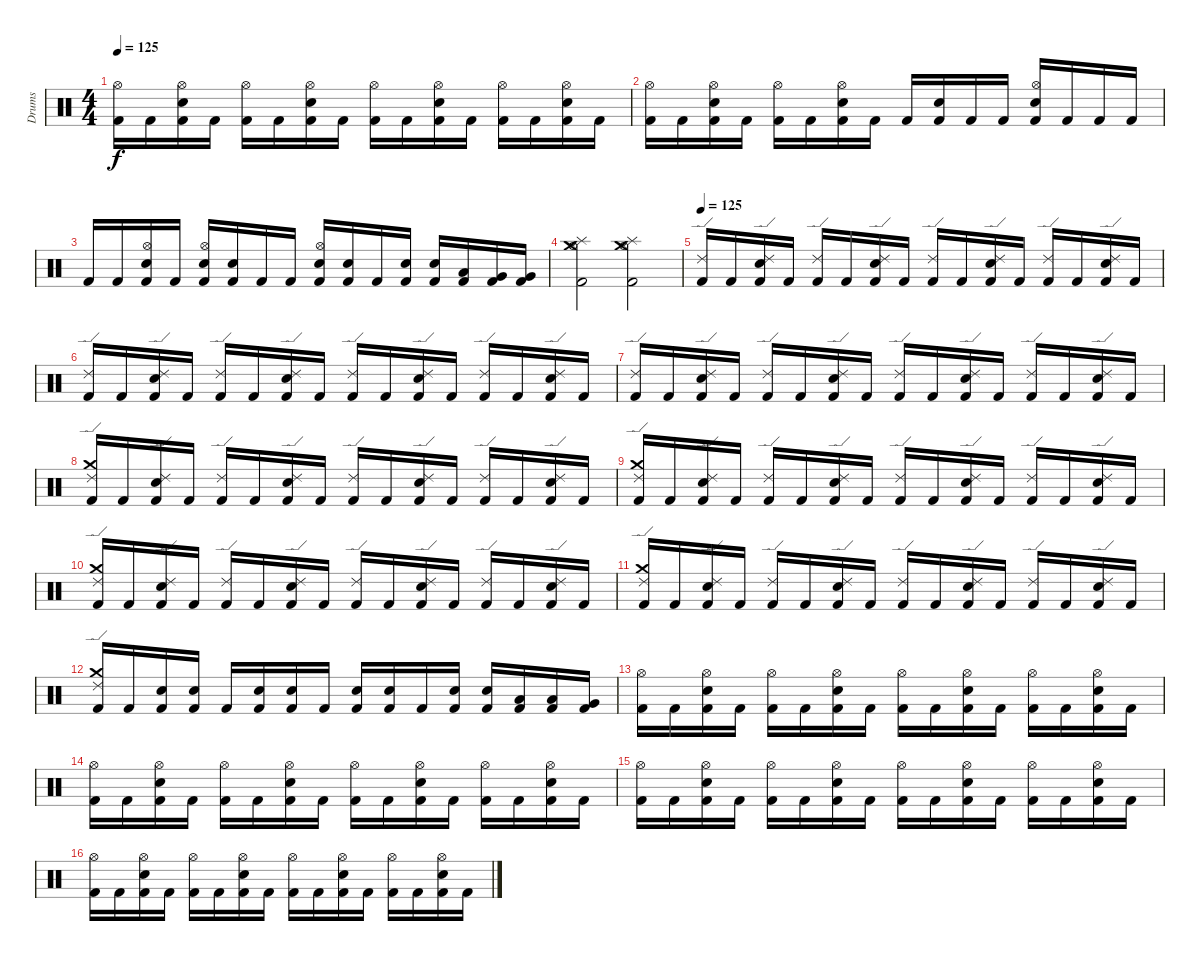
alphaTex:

\track ("Drums" "Drums") {instrument percussion}
\staff {score}
\articulation defaults
\ts (4 4)
\tempo 125
\clef neutral
\ks c
("Kick (hit) 2" "Hi-Hat (open)").16{dy f} "Kick (hit) 2".16 ("Kick (hit) 2" "Electric Snare (hit)" "Hi-Hat (open)").16 "Kick (hit) 2".16 ("Kick (hit) 2" "Hi-Hat (open)").16 "Kick (hit) 2".16 ("Kick (hit) 2" "Electric Snare (hit)" "Hi-Hat (open)").16 "Kick (hit) 2".16 ("Kick (hit) 2" "Hi-Hat (open)").16 "Kick (hit) 2".16 ("Kick (hit) 2" "Electric Snare (hit)" "Hi-Hat (open)").16 "Kick (hit) 2".16 ("Kick (hit) 2" "Hi-Hat (open)").16 "Kick (hit) 2".16 ("Kick (hit) 2" "Electric Snare (hit)" "Hi-Hat (open)").16 "Kick (hit) 2".16 |
("Kick (hit) 2" "Hi-Hat (open)").16 "Kick (hit) 2".16 ("Kick (hit) 2" "Electric Snare (hit)" "Hi-Hat (open)").16 "Kick (hit) 2".16 ("Kick (hit) 2" "Hi-Hat (open)").16 "Kick (hit) 2".16 ("Kick (hit) 2" "Electric Snare (hit)" "Hi-Hat (open)").16 "Kick (hit) 2".16 "Kick (hit) 2".16 ("Electric Snare (hit)" "Kick (hit) 2").16 "Kick (hit) 2".16 "Kick (hit) 2".16 ("Hi-Hat (open)" "Electric Snare (hit)" "Kick (hit) 2").16 "Kick (hit) 2".16 "Kick (hit) 2".16 "Kick (hit) 2".16 |
"Kick (hit) 2".16 "Kick (hit) 2".16 ("Hi-Hat (open)" "Kick (hit) 2" "Electric Snare (hit)").16 "Kick (hit) 2".16 ("Hi-Hat (open)" "Kick (hit) 2" "Electric Snare (hit)").16 ("Kick (hit) 2" "Electric Snare (hit)").16 "Kick (hit) 2".16 "Kick (hit) 2".16 ("Hi-Hat (open)" "Kick (hit) 2" "Electric Snare (hit)").16 ("Kick (hit) 2" "Electric Snare (hit)").16 "Kick (hit) 2".16 ("Kick (hit) 2" "Electric Snare (hit)").16 ("Kick (hit) 2" "Electric Snare (hit)").16 ("Kick (hit) 2" "Low Tom (hit)").16 ("Kick (hit) 2" "Very Low Tom (hit)").16 ("Kick (hit) 2" "Very Low Tom (hit)").16 |
("Hi-Hat (open)" "Crash medium (hit)" "Splash (hit)" "Kick (hit) 2").2 ("Hi-Hat (open)" "Crash medium (hit)" "Splash (hit)" "Kick (hit) 2").2 |
\tempo 125
("Kick (hit) 2" "Ride (edge) 2").16 "Kick (hit) 2".16 ("Kick (hit) 2" "Electric Snare (hit)" "Ride (edge) 2").16 "Kick (hit) 2".16 ("Kick (hit) 2" "Ride (edge) 2").16 "Kick (hit) 2".16 ("Kick (hit) 2" "Electric Snare (hit)" "Ride (edge) 2").16 "Kick (hit) 2".16 ("Kick (hit) 2" "Ride (edge) 2").16 "Kick (hit) 2".16 ("Kick (hit) 2" "Electric Snare (hit)" "Ride (edge) 2").16 "Kick (hit) 2".16 ("Kick (hit) 2" "Ride (edge) 2").16 "Kick (hit) 2".16 ("Kick (hit) 2" "Electric Snare (hit)" "Ride (edge) 2").16 "Kick (hit) 2".16 |
("Kick (hit) 2" "Ride (edge) 2").16 "Kick (hit) 2".16 ("Kick (hit) 2" "Electric Snare (hit)" "Ride (edge) 2").16 "Kick (hit) 2".16 ("Kick (hit) 2" "Ride (edge) 2").16 "Kick (hit) 2".16 ("Kick (hit) 2" "Electric Snare (hit)" "Ride (edge) 2").16 "Kick (hit) 2".16 ("Kick (hit) 2" "Ride (edge) 2").16 "Kick (hit) 2".16 ("Kick (hit) 2" "Electric Snare (hit)" "Ride (edge) 2").16 "Kick (hit) 2".16 ("Kick (hit) 2" "Ride (edge) 2").16 "Kick (hit) 2".16 ("Kick (hit) 2" "Electric Snare (hit)" "Ride (edge) 2").16 "Kick (hit) 2".16 |
("Kick (hit) 2" "Ride (edge) 2").16 "Kick (hit) 2".16 ("Kick (hit) 2" "Electric Snare (hit)" "Ride (edge) 2").16 "Kick (hit) 2".16 ("Kick (hit) 2" "Ride (edge) 2").16 "Kick (hit) 2".16 ("Kick (hit) 2" "Electric Snare (hit)" "Ride (edge) 2").16 "Kick (hit) 2".16 ("Kick (hit) 2" "Ride (edge) 2").16 "Kick (hit) 2".16 ("Kick (hit) 2" "Electric Snare (hit)" "Ride (edge) 2").16 "Kick (hit) 2".16 ("Kick (hit) 2" "Ride (edge) 2").16 "Kick (hit) 2".16 ("Kick (hit) 2" "Electric Snare (hit)" "Ride (edge) 2").16 "Kick (hit) 2".16 |
("Crash medium (hit)" "Kick (hit) 2" "Ride (edge) 2").16 "Kick (hit) 2".16 ("Kick (hit) 2" "Electric Snare (hit)" "Ride (edge) 2").16 "Kick (hit) 2".16 ("Kick (hit) 2" "Ride (edge) 2").16 "Kick (hit) 2".16 ("Kick (hit) 2" "Electric Snare (hit)" "Ride (edge) 2").16 "Kick (hit) 2".16 ("Kick (hit) 2" "Ride (edge) 2").16 "Kick (hit) 2".16 ("Kick (hit) 2" "Electric Snare (hit)" "Ride (edge) 2").16 "Kick (hit) 2".16 ("Kick (hit) 2" "Ride (edge) 2").16 "Kick (hit) 2".16 ("Kick (hit) 2" "Electric Snare (hit)" "Ride (edge) 2").16 "Kick (hit) 2".16 |
("Crash medium (hit)" "Kick (hit) 2" "Ride (edge) 2").16 "Kick (hit) 2".16 ("Kick (hit) 2" "Electric Snare (hit)" "Ride (edge) 2").16 "Kick (hit) 2".16 ("Kick (hit) 2" "Ride (edge) 2").16 "Kick (hit) 2".16 ("Kick (hit) 2" "Electric Snare (hit)" "Ride (edge) 2").16 "Kick (hit) 2".16 ("Kick (hit) 2" "Ride (edge) 2").16 "Kick (hit) 2".16 ("Kick (hit) 2" "Electric Snare (hit)" "Ride (edge) 2").16 "Kick (hit) 2".16 ("Kick (hit) 2" "Ride (edge) 2").16 "Kick (hit) 2".16 ("Kick (hit) 2" "Electric Snare (hit)" "Ride (edge) 2").16 "Kick (hit) 2".16 |
("Crash medium (hit)" "Kick (hit) 2" "Ride (edge) 2").16 "Kick (hit) 2".16 ("Kick (hit) 2" "Electric Snare (hit)" "Ride (edge) 2").16 "Kick (hit) 2".16 ("Kick (hit) 2" "Ride (edge) 2").16 "Kick (hit) 2".16 ("Kick (hit) 2" "Electric Snare (hit)" "Ride (edge) 2").16 "Kick (hit) 2".16 ("Kick (hit) 2" "Ride (edge) 2").16 "Kick (hit) 2".16 ("Kick (hit) 2" "Electric Snare (hit)" "Ride (edge) 2").16 "Kick (hit) 2".16 ("Kick (hit) 2" "Ride (edge) 2").16 "Kick (hit) 2".16 ("Kick (hit) 2" "Electric Snare (hit)" "Ride (edge) 2").16 "Kick (hit) 2".16 |
("Crash medium (hit)" "Kick (hit) 2" "Ride (edge) 2").16 "Kick (hit) 2".16 ("Kick (hit) 2" "Electric Snare (hit)" "Ride (edge) 2").16 "Kick (hit) 2".16 ("Kick (hit) 2" "Ride (edge) 2").16 "Kick (hit) 2".16 ("Kick (hit) 2" "Electric Snare (hit)" "Ride (edge) 2").16 "Kick (hit) 2".16 ("Kick (hit) 2" "Ride (edge) 2").16 "Kick (hit) 2".16 ("Kick (hit) 2" "Electric Snare (hit)" "Ride (edge) 2").16 "Kick (hit) 2".16 ("Kick (hit) 2" "Ride (edge) 2").16 "Kick (hit) 2".16 ("Kick (hit) 2" "Electric Snare (hit)" "Ride (edge) 2").16 "Kick (hit) 2".16 |
("Crash medium (hit)" "Kick (hit) 2" "Ride (edge) 2").16 "Kick (hit) 2".16 ("Electric Snare (hit)" "Kick (hit) 2").16 ("Electric Snare (hit)" "Kick (hit) 2").16 "Kick (hit) 2".16 ("Electric Snare (hit)" "Kick (hit) 2").16 ("Electric Snare (hit)" "Kick (hit) 2").16 "Kick (hit) 2".16 ("Electric Snare (hit)" "Kick (hit) 2").16 ("Electric Snare (hit)" "Kick (hit) 2").16 "Kick (hit) 2".16 ("Electric Snare (hit)" "Kick (hit) 2").16 ("Electric Snare (hit)" "Kick (hit) 2").16 ("Low Tom (hit)" "Kick (hit) 2").16 ("Low Tom (hit)" "Kick (hit) 2").16 ("Very Low Tom (hit)" "Kick (hit) 2").16 |
("Hi-Hat (open)" "Kick (hit) 2").16 "Kick (hit) 2".16 ("Hi-Hat (open)" "Electric Snare (hit)" "Kick (hit) 2").16 "Kick (hit) 2".16 ("Hi-Hat (open)" "Kick (hit) 2").16 "Kick (hit) 2".16 ("Hi-Hat (open)" "Electric Snare (hit)" "Kick (hit) 2").16 "Kick (hit) 2".16 ("Hi-Hat (open)" "Kick (hit) 2").16 "Kick (hit) 2".16 ("Hi-Hat (open)" "Electric Snare (hit)" "Kick (hit) 2").16 "Kick (hit) 2".16 ("Hi-Hat (open)" "Kick (hit) 2").16 "Kick (hit) 2".16 ("Hi-Hat (open)" "Electric Snare (hit)" "Kick (hit) 2").16 "Kick (hit) 2".16 |
("Hi-Hat (open)" "Kick (hit) 2").16 "Kick (hit) 2".16 ("Hi-Hat (open)" "Electric Snare (hit)" "Kick (hit) 2").16 "Kick (hit) 2".16 ("Hi-Hat (open)" "Kick (hit) 2").16 "Kick (hit) 2".16 ("Hi-Hat (open)" "Electric Snare (hit)" "Kick (hit) 2").16 "Kick (hit) 2".16 ("Hi-Hat (open)" "Kick (hit) 2").16 "Kick (hit) 2".16 ("Hi-Hat (open)" "Electric Snare (hit)" "Kick (hit) 2").16 "Kick (hit) 2".16 ("Hi-Hat (open)" "Kick (hit) 2").16 "Kick (hit) 2".16 ("Hi-Hat (open)" "Electric Snare (hit)" "Kick (hit) 2").16 "Kick (hit) 2".16 |
("Hi-Hat (open)" "Kick (hit) 2").16 "Kick (hit) 2".16 ("Hi-Hat (open)" "Electric Snare (hit)" "Kick (hit) 2").16 "Kick (hit) 2".16 ("Hi-Hat (open)" "Kick (hit) 2").16 "Kick (hit) 2".16 ("Hi-Hat (open)" "Electric Snare (hit)" "Kick (hit) 2").16 "Kick (hit) 2".16 ("Hi-Hat (open)" "Kick (hit) 2").16 "Kick (hit) 2".16 ("Hi-Hat (open)" "Electric Snare (hit)" "Kick (hit) 2").16 "Kick (hit) 2".16 ("Hi-Hat (open)" "Kick (hit) 2").16 "Kick (hit) 2".16 ("Hi-Hat (open)" "Electric Snare (hit)" "Kick (hit) 2").16 "Kick (hit) 2".16 |
("Hi-Hat (open)" "Kick (hit) 2").16 "Kick (hit) 2".16 ("Hi-Hat (open)" "Electric Snare (hit)" "Kick (hit) 2").16 "Kick (hit) 2".16 ("Hi-Hat (open)" "Kick (hit) 2").16 "Kick (hit) 2".16 ("Hi-Hat (open)" "Electric Snare (hit)" "Kick (hit) 2").16 "Kick (hit) 2".16 ("Hi-Hat (open)" "Kick (hit) 2").16 "Kick (hit) 2".16 ("Hi-Hat (open)" "Electric Snare (hit)" "Kick (hit) 2").16 "Kick (hit) 2".16 ("Hi-Hat (open)" "Kick (hit) 2").16 "Kick (hit) 2".16 ("Hi-Hat (open)" "Electric Snare (hit)" "Kick (hit) 2").16 "Kick (hit) 2".16
